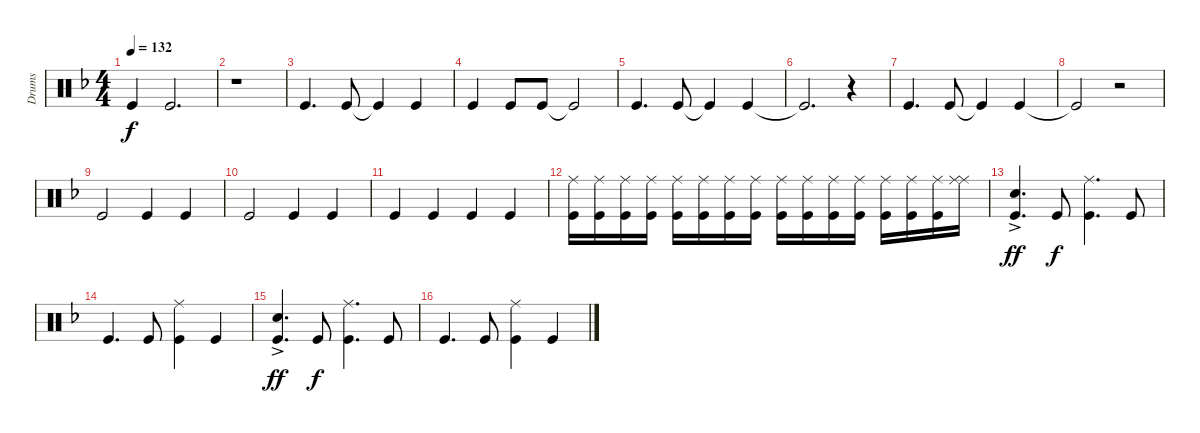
\track ("Drums" "Drums") {instrument percussion}
\staff {score}
\articulation defaults
\ts (4 4)
\tempo 132
\clef neutral
\ks f "Kick (hit)"{t}.4{dy f} "Kick (hit)".2{d}
|
r.1 |
"Kick (hit)".4{d} "Kick (hit)".8 "Kick (hit)"{t}.4 "Kick (hit)".4 |
"Kick (hit)".4 "Kick (hit)".8 "Kick (hit)".8 "Kick (hit)"{t}.2 |
"Kick (hit)".4{d} "Kick (hit)".8 "Kick (hit)"{t}.4 "Kick (hit)".4 |
"Kick (hit)"{t}.2{d} r.4 |
"Kick (hit)".4{d} "Kick (hit)".8 "Kick (hit)"{t}.4 "Kick (hit)".4 |
"Kick (hit)"{t}.2 r.2 |
"Kick (hit)".2 "Kick (hit)".4 "Kick (hit)".4 |
"Kick (hit)".2 "Kick (hit)".4 "Kick (hit)".4 |
"Kick (hit)".4 "Kick (hit)".4 "Kick (hit)".4 "Kick (hit)".4 |
("Ride (middle)" "Kick (hit)").16 ("Ride (middle)" "Kick (hit)").16 ("Ride (middle)" "Kick (hit)").16 ("Ride (middle)" "Kick (hit)").16 ("Ride (middle)" "Kick (hit)").16 ("Ride (middle)" "Kick (hit)").16 ("Ride (middle)" "Kick (hit)").16 ("Ride (middle)" "Kick (hit)").16 ("Ride (middle)" "Kick (hit)").16 ("Ride (middle)" "Kick (hit)").16 ("Ride (middle)" "Kick (hit)").16 ("Ride (middle)" "Kick (hit)").16 ("Ride (middle)" "Kick (hit)").16 ("Ride (middle)" "Kick (hit)").16 ("Ride (middle)" "Kick (hit)").16 ("Ride (middle)" "Ride (middle)").16 |
("Electric Snare (hit)"{ac} "Kick (hit)"{ac}).4{d dy ff} "Kick (hit)".8{dy f} ("Ride (middle)" "Kick (hit)").4{d} "Kick (hit)".8 |
"Kick (hit)".4{d} "Kick (hit)".8 ("Ride (middle)" "Kick (hit)").4 "Kick (hit)".4 |
("Electric Snare (hit)"{ac} "Kick (hit)"{ac}).4{d dy ff} "Kick (hit)".8{dy f} ("Ride (middle)" "Kick (hit)").4{d} "Kick (hit)".8 |
"Kick (hit)".4{d} "Kick (hit)".8 ("Ride (middle)" "Kick (hit)").4 "Kick (hit)".4
